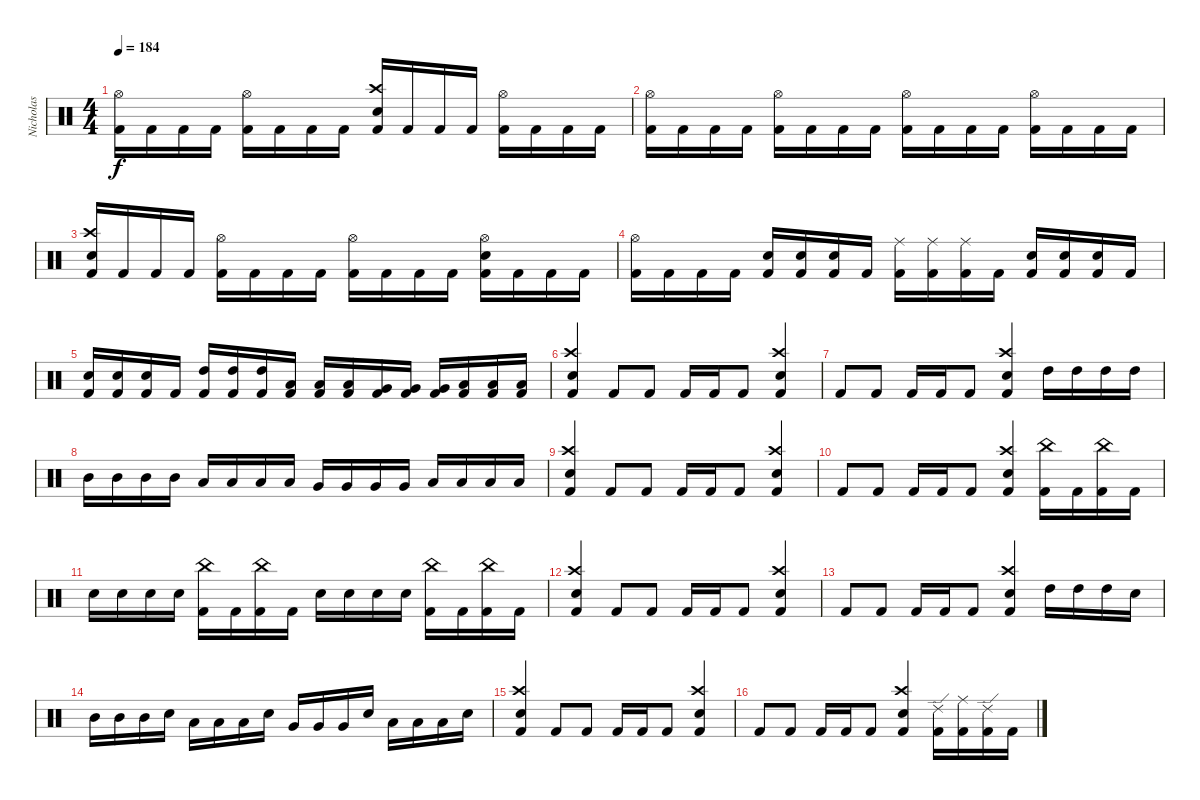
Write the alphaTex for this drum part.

\track ("Nicholas" "Nicholas") {instrument percussion}
\staff {score}
\articulation defaults
\ts (4 4)
\tempo 184
\clef neutral
\ks c
("Hi-Hat (open)" "Kick (hit) 2").16{dy f} "Kick (hit) 2".16 "Kick (hit) 2".16 "Kick (hit) 2".16 ("Hi-Hat (open)" "Kick (hit) 2").16 "Kick (hit) 2".16 "Kick (hit) 2".16 "Kick (hit) 2".16 ("Crash high (hit)" "Electric Snare (hit)" "Kick (hit) 2").16 "Kick (hit) 2".16 "Kick (hit) 2".16 "Kick (hit) 2".16 ("Hi-Hat (open)" "Kick (hit) 2").16 "Kick (hit) 2".16 "Kick (hit) 2".16 "Kick (hit) 2".16 |
("Hi-Hat (open)" "Kick (hit) 2").16 "Kick (hit) 2".16 "Kick (hit) 2".16 "Kick (hit) 2".16 ("Hi-Hat (open)" "Kick (hit) 2").16 "Kick (hit) 2".16 "Kick (hit) 2".16 "Kick (hit) 2".16 ("Hi-Hat (open)" "Kick (hit) 2").16 "Kick (hit) 2".16 "Kick (hit) 2".16 "Kick (hit) 2".16 ("Hi-Hat (open)" "Kick (hit) 2").16 "Kick (hit) 2".16 "Kick (hit) 2".16 "Kick (hit) 2".16 |
("Crash high (hit)" "Electric Snare (hit)" "Kick (hit) 2").16 "Kick (hit) 2".16 "Kick (hit) 2".16 "Kick (hit) 2".16 ("Hi-Hat (open)" "Kick (hit) 2").16 "Kick (hit) 2".16 "Kick (hit) 2".16 "Kick (hit) 2".16 ("Hi-Hat (open)" "Kick (hit) 2").16 "Kick (hit) 2".16 "Kick (hit) 2".16 "Kick (hit) 2".16 ("Hi-Hat (open)" "Electric Snare (hit)" "Kick (hit) 2").16 "Kick (hit) 2".16 "Kick (hit) 2".16 "Kick (hit) 2".16 |
("Hi-Hat (open)" "Kick (hit) 2").16 "Kick (hit) 2".16 "Kick (hit) 2".16 "Kick (hit) 2".16 ("Electric Snare (hit)" "Kick (hit) 2").16 ("Electric Snare (hit)" "Kick (hit) 2").16 ("Electric Snare (hit)" "Kick (hit) 2").16 "Kick (hit) 2".16 ("Ride (middle)" "Kick (hit) 2").16 ("Ride (middle)" "Kick (hit) 2").16 ("Ride (middle)" "Kick (hit) 2").16 "Kick (hit) 2".16 ("Electric Snare (hit)" "Kick (hit) 2").16 ("Electric Snare (hit)" "Kick (hit) 2").16 ("Electric Snare (hit)" "Kick (hit) 2").16 "Kick (hit) 2".16 |
("Electric Snare (hit)" "Kick (hit) 2").16 ("Electric Snare (hit)" "Kick (hit) 2").16 ("Electric Snare (hit)" "Kick (hit) 2").16 "Kick (hit) 2".16 ("High Tom (hit)" "Kick (hit) 2").16 ("High Tom (hit)" "Kick (hit) 2").16 ("High Tom (hit)" "Kick (hit) 2").16 ("Low Tom (hit)" "Kick (hit) 2").16 ("Low Tom (hit)" "Kick (hit) 2").16 ("Low Tom (hit)" "Kick (hit) 2").16 ("Very Low Tom (hit)" "Kick (hit) 2").16 ("Very Low Tom (hit)" "Kick (hit) 2").16 ("Very Low Tom (hit)" "Kick (hit) 2").16 ("Low Floor Tom (hit)" "Kick (hit) 2").16 ("Low Floor Tom (hit)" "Kick (hit) 2").16 ("Low Floor Tom (hit)" "Kick (hit) 2").16 |
("Crash high (hit)" "Electric Snare (hit)" "Kick (hit) 2").4 "Kick (hit) 2".8 "Kick (hit) 2".8 "Kick (hit) 2".16 "Kick (hit) 2".16 "Kick (hit) 2".8 ("Crash high (hit)" "Electric Snare (hit)" "Kick (hit) 2").4 |
"Kick (hit) 2".8 "Kick (hit) 2".8 "Kick (hit) 2".16 "Kick (hit) 2".16 "Kick (hit) 2".8 ("Crash high (hit)" "Electric Snare (hit)" "Kick (hit) 2").4 "High Tom (hit)".16 "High Tom (hit)".16 "High Tom (hit)".16 "High Tom (hit)".16 |
"Mid Tom (hit)".16 "Mid Tom (hit)".16 "Mid Tom (hit)".16 "Mid Tom (hit)".16 "Low Tom (hit)".16 "Low Tom (hit)".16 "Low Tom (hit)".16 "Low Tom (hit)".16 "Very Low Tom (hit)".16 "Very Low Tom (hit)".16 "Very Low Tom (hit)".16 "Very Low Tom (hit)".16 "Low Floor Tom (hit)".16 "Low Floor Tom (hit)".16 "Low Floor Tom (hit)".16 "Low Floor Tom (hit)".16 |
("Crash high (hit)" "Electric Snare (hit)" "Kick (hit) 2").4 "Kick (hit) 2".8 "Kick (hit) 2".8 "Kick (hit) 2".16 "Kick (hit) 2".16 "Kick (hit) 2".8 ("Crash high (hit)" "Electric Snare (hit)" "Kick (hit) 2").4 |
"Kick (hit) 2".8 "Kick (hit) 2".8 "Kick (hit) 2".16 "Kick (hit) 2".16 "Kick (hit) 2".8 ("Crash high (hit)" "Electric Snare (hit)" "Kick (hit) 2").4 ("China (hit)" "Kick (hit) 2").16 "Kick (hit) 2".16 ("China (hit)" "Kick (hit) 2").16 "Kick (hit) 2".16 |
"Electric Snare (hit)".16 "Electric Snare (hit)".16 "Electric Snare (hit)".16 "Electric Snare (hit)".16 ("China (hit)" "Kick (hit) 2").16 "Kick (hit) 2".16 ("China (hit)" "Kick (hit) 2").16 "Kick (hit) 2".16 "Electric Snare (hit)".16 "Electric Snare (hit)".16 "Electric Snare (hit)".16 "Electric Snare (hit)".16 ("China (hit)" "Kick (hit) 2").16 "Kick (hit) 2".16 ("China (hit)" "Kick (hit) 2").16 "Kick (hit) 2".16 |
("Crash high (hit)" "Electric Snare (hit)" "Kick (hit) 2").4 "Kick (hit) 2".8 "Kick (hit) 2".8 "Kick (hit) 2".16 "Kick (hit) 2".16 "Kick (hit) 2".8 ("Crash high (hit)" "Electric Snare (hit)" "Kick (hit) 2").4 |
"Kick (hit) 2".8 "Kick (hit) 2".8 "Kick (hit) 2".16 "Kick (hit) 2".16 "Kick (hit) 2".8 ("Crash high (hit)" "Electric Snare (hit)" "Kick (hit) 2").4 "High Tom (hit)".16 "High Tom (hit)".16 "High Tom (hit)".16 "Electric Snare (hit)".16 |
"Mid Tom (hit)".16 "Mid Tom (hit)".16 "Mid Tom (hit)".16 "Electric Snare (hit)".16 "Low Tom (hit)".16 "Low Tom (hit)".16 "Low Tom (hit)".16 "Electric Snare (hit)".16 "Very Low Tom (hit)".16 "Very Low Tom (hit)".16 "Very Low Tom (hit)".16 "Electric Snare (hit)".16 "Low Floor Tom (hit)".16 "Low Floor Tom (hit)".16 "Low Floor Tom (hit)".16 "Electric Snare (hit)".16 |
("Crash high (hit)" "Electric Snare (hit)" "Kick (hit) 2").4 "Kick (hit) 2".8 "Kick (hit) 2".8 "Kick (hit) 2".16 "Kick (hit) 2".16 "Kick (hit) 2".8 ("Crash high (hit)" "Electric Snare (hit)" "Kick (hit) 2").4 |
"Kick (hit) 2".8 "Kick (hit) 2".8 "Kick (hit) 2".16 "Kick (hit) 2".16 "Kick (hit) 2".8 ("Crash high (hit)" "Electric Snare (hit)" "Kick (hit) 2").4 ("Ride (edge) 2" "Kick (hit) 2").16 ("Ride (middle)" "Kick (hit) 2").16 ("Ride (edge) 2" "Kick (hit) 2").16 "Kick (hit) 2".16
